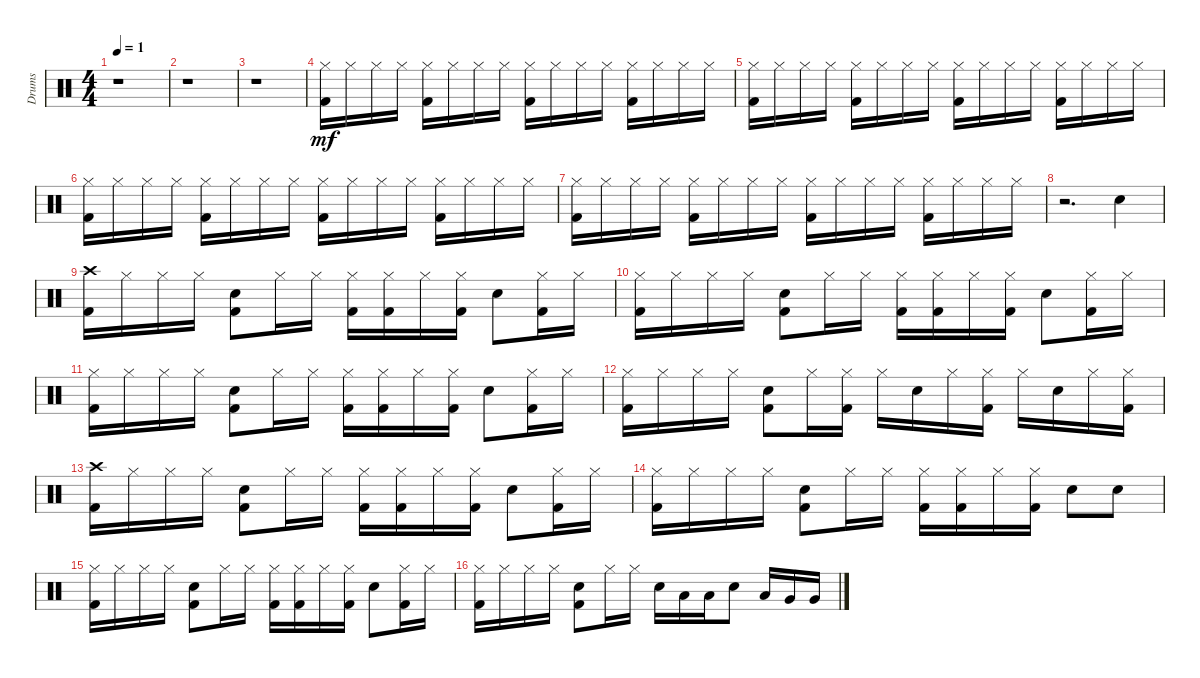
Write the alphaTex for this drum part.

\track ("Drums" "Drums") {instrument percussion}
\staff {score}
\articulation defaults
\ts (4 4)
\tempo 1
\clef neutral
\ks c
r.1{dy mf} |
r.1 |
r.1 |
("Hi-Hat (closed)" "Kick (hit) 2").16 "Hi-Hat (closed)".16 "Hi-Hat (closed)".16 "Hi-Hat (closed)".16 ("Hi-Hat (closed)" "Kick (hit) 2").16 "Hi-Hat (closed)".16 "Hi-Hat (closed)".16 "Hi-Hat (closed)".16 ("Hi-Hat (closed)" "Kick (hit) 2").16 "Hi-Hat (closed)".16 "Hi-Hat (closed)".16 "Hi-Hat (closed)".16 ("Hi-Hat (closed)" "Kick (hit) 2").16 "Hi-Hat (closed)".16 "Hi-Hat (closed)".16 "Hi-Hat (closed)".16 |
("Hi-Hat (closed)" "Kick (hit) 2").16 "Hi-Hat (closed)".16 "Hi-Hat (closed)".16 "Hi-Hat (closed)".16 ("Hi-Hat (closed)" "Kick (hit) 2").16 "Hi-Hat (closed)".16 "Hi-Hat (closed)".16 "Hi-Hat (closed)".16 ("Hi-Hat (closed)" "Kick (hit) 2").16 "Hi-Hat (closed)".16 "Hi-Hat (closed)".16 "Hi-Hat (closed)".16 ("Hi-Hat (closed)" "Kick (hit) 2").16 "Hi-Hat (closed)".16 "Hi-Hat (closed)".16 "Hi-Hat (closed)".16 |
("Hi-Hat (closed)" "Kick (hit) 2").16 "Hi-Hat (closed)".16 "Hi-Hat (closed)".16 "Hi-Hat (closed)".16 ("Hi-Hat (closed)" "Kick (hit) 2").16 "Hi-Hat (closed)".16 "Hi-Hat (closed)".16 "Hi-Hat (closed)".16 ("Hi-Hat (closed)" "Kick (hit) 2").16 "Hi-Hat (closed)".16 "Hi-Hat (closed)".16 "Hi-Hat (closed)".16 ("Hi-Hat (closed)" "Kick (hit) 2").16 "Hi-Hat (closed)".16 "Hi-Hat (closed)".16 "Hi-Hat (closed)".16 |
("Hi-Hat (closed)" "Kick (hit) 2").16 "Hi-Hat (closed)".16 "Hi-Hat (closed)".16 "Hi-Hat (closed)".16 ("Hi-Hat (closed)" "Kick (hit) 2").16 "Hi-Hat (closed)".16 "Hi-Hat (closed)".16 "Hi-Hat (closed)".16 ("Hi-Hat (closed)" "Kick (hit) 2").16 "Hi-Hat (closed)".16 "Hi-Hat (closed)".16 "Hi-Hat (closed)".16 ("Hi-Hat (closed)" "Kick (hit) 2").16 "Hi-Hat (closed)".16 "Hi-Hat (closed)".16 "Hi-Hat (closed)".16 |
r.2{d} "Snare (hit) 2".4 |
("Crash high (hit)" "Kick (hit) 2").16 "Hi-Hat (closed)".16 "Hi-Hat (closed)".16 "Hi-Hat (closed)".16 ("Kick (hit) 2" "Snare (hit) 2").8 "Hi-Hat (closed)".16 "Hi-Hat (closed)".16 ("Hi-Hat (closed)" "Kick (hit) 2").16 ("Hi-Hat (closed)" "Kick (hit) 2").16 "Hi-Hat (closed)".16 ("Hi-Hat (closed)" "Kick (hit) 2").16 "Snare (hit) 2".8 ("Hi-Hat (closed)" "Kick (hit) 2").16 "Hi-Hat (closed)".16 |
("Kick (hit) 2" "Hi-Hat (closed)").16 "Hi-Hat (closed)".16 "Hi-Hat (closed)".16 "Hi-Hat (closed)".16 ("Kick (hit) 2" "Snare (hit) 2").8 "Hi-Hat (closed)".16 "Hi-Hat (closed)".16 ("Hi-Hat (closed)" "Kick (hit) 2").16 ("Hi-Hat (closed)" "Kick (hit) 2").16 "Hi-Hat (closed)".16 ("Hi-Hat (closed)" "Kick (hit) 2").16 "Snare (hit) 2".8 ("Hi-Hat (closed)" "Kick (hit) 2").16 "Hi-Hat (closed)".16 |
("Kick (hit) 2" "Hi-Hat (closed)").16 "Hi-Hat (closed)".16 "Hi-Hat (closed)".16 "Hi-Hat (closed)".16 ("Kick (hit) 2" "Snare (hit) 2").8 "Hi-Hat (closed)".16 "Hi-Hat (closed)".16 ("Hi-Hat (closed)" "Kick (hit) 2").16 ("Hi-Hat (closed)" "Kick (hit) 2").16 "Hi-Hat (closed)".16 ("Hi-Hat (closed)" "Kick (hit) 2").16 "Snare (hit) 2".8 ("Hi-Hat (closed)" "Kick (hit) 2").16 "Hi-Hat (closed)".16 |
("Kick (hit) 2" "Hi-Hat (closed)").16 "Hi-Hat (closed)".16 "Hi-Hat (closed)".16 "Hi-Hat (closed)".16 ("Kick (hit) 2" "Snare (hit) 2").8 "Hi-Hat (closed)".16 ("Hi-Hat (closed)" "Kick (hit) 2").16 "Hi-Hat (closed)".16 "Snare (hit) 2".16 "Hi-Hat (closed)".16 ("Hi-Hat (closed)" "Kick (hit) 2").16 "Hi-Hat (closed)".16 "Snare (hit) 2".16 "Hi-Hat (closed)".16 ("Hi-Hat (closed)" "Kick (hit) 2").16 |
("Crash high (hit)" "Kick (hit) 2").16 "Hi-Hat (closed)".16 "Hi-Hat (closed)".16 "Hi-Hat (closed)".16 ("Kick (hit) 2" "Snare (hit) 2").8 "Hi-Hat (closed)".16 "Hi-Hat (closed)".16 ("Hi-Hat (closed)" "Kick (hit) 2").16 ("Hi-Hat (closed)" "Kick (hit) 2").16 "Hi-Hat (closed)".16 ("Hi-Hat (closed)" "Kick (hit) 2").16 "Snare (hit) 2".8 ("Hi-Hat (closed)" "Kick (hit) 2").16 "Hi-Hat (closed)".16 |
("Kick (hit) 2" "Hi-Hat (closed)").16 "Hi-Hat (closed)".16 "Hi-Hat (closed)".16 "Hi-Hat (closed)".16 ("Kick (hit) 2" "Snare (hit) 2").8 "Hi-Hat (closed)".16 "Hi-Hat (closed)".16 ("Hi-Hat (closed)" "Kick (hit) 2").16 ("Hi-Hat (closed)" "Kick (hit) 2").16 "Hi-Hat (closed)".16 ("Hi-Hat (closed)" "Kick (hit) 2").16 "Snare (hit) 2".8 "Snare (hit) 2".8 |
("Kick (hit) 2" "Hi-Hat (closed)").16 "Hi-Hat (closed)".16 "Hi-Hat (closed)".16 "Hi-Hat (closed)".16 ("Kick (hit) 2" "Snare (hit) 2").8 "Hi-Hat (closed)".16 "Hi-Hat (closed)".16 ("Hi-Hat (closed)" "Kick (hit) 2").16 ("Hi-Hat (closed)" "Kick (hit) 2").16 "Hi-Hat (closed)".16 ("Hi-Hat (closed)" "Kick (hit) 2").16 "Snare (hit) 2".8 ("Hi-Hat (closed)" "Kick (hit) 2").16 "Hi-Hat (closed)".16 |
("Kick (hit) 2" "Hi-Hat (closed)").16 "Hi-Hat (closed)".16 "Hi-Hat (closed)".16 "Hi-Hat (closed)".16 ("Kick (hit) 2" "Snare (hit) 2").8 "Hi-Hat (closed)".16 "Hi-Hat (closed)".16 "Snare (hit) 2".16 "Low Tom (hit)".16 "Low Tom (hit)".16 "Snare (hit) 2".8 "Low Tom (hit)".16 "Very Low Tom (hit)".16 "Very Low Tom (hit)".16
